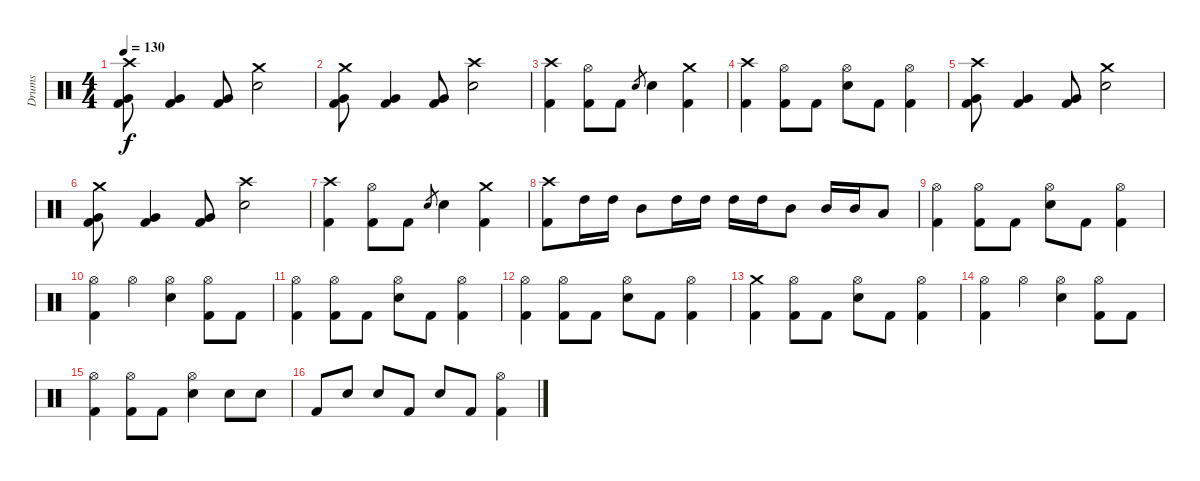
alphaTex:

\track ("Drums" "Drums") {instrument percussion}
\staff {score}
\articulation defaults
\ts (4 4)
\tempo 130
\clef neutral
\ks c
("Crash high (hit)" "Very Low Tom (hit)" "Kick (hit) 2").8{dy f} ("Very Low Tom (hit)" "Kick (hit) 2").4 ("Very Low Tom (hit)" "Kick (hit) 2").8 ("Crash medium (hit)" "Electric Snare (hit)").2 |
("Crash medium (hit)" "Very Low Tom (hit)" "Kick (hit) 2").8 ("Very Low Tom (hit)" "Kick (hit) 2").4 ("Very Low Tom (hit)" "Kick (hit) 2").8 ("Crash high (hit)" "Electric Snare (hit)").2 |
("Crash high (hit)" "Kick (hit) 2").4 ("Hi-Hat (open)" "Kick (hit) 2").8 "Kick (hit) 2".8 "Electric Snare (hit)".8{gr} "Electric Snare (hit)".4 ("Crash medium (hit)" "Kick (hit) 2").4 |
("Crash high (hit)" "Kick (hit) 2").4 ("Hi-Hat (open)" "Kick (hit) 2").8 "Kick (hit) 2".8 ("Hi-Hat (open)" "Electric Snare (hit)").8 "Kick (hit) 2".8 ("Hi-Hat (open)" "Kick (hit) 2").4 |
("Crash high (hit)" "Very Low Tom (hit)" "Kick (hit) 2").8 ("Very Low Tom (hit)" "Kick (hit) 2").4 ("Very Low Tom (hit)" "Kick (hit) 2").8 ("Crash medium (hit)" "Electric Snare (hit)").2 |
("Crash medium (hit)" "Very Low Tom (hit)" "Kick (hit) 2").8 ("Very Low Tom (hit)" "Kick (hit) 2").4 ("Very Low Tom (hit)" "Kick (hit) 2").8 ("Crash high (hit)" "Electric Snare (hit)").2 |
("Crash high (hit)" "Kick (hit) 2").4 ("Hi-Hat (open)" "Kick (hit) 2").8 "Kick (hit) 2".8 "Electric Snare (hit)".8{gr} "Electric Snare (hit)".4 ("Crash medium (hit)" "Kick (hit) 2").4 |
("Crash high (hit)" "Kick (hit) 2").8 "High Tom (hit)".16 "High Tom (hit)".16 "Mid Tom (hit)".8 "High Tom (hit)".16 "High Tom (hit)".16 "High Tom (hit)".16 "High Tom (hit)".16 "Mid Tom (hit)".8 "Mid Tom (hit)".16 "Mid Tom (hit)".16 "Low Tom (hit)".8 |
("Hi-Hat (open)" "Kick (hit) 2").4 ("Hi-Hat (open)" "Kick (hit) 2").8 "Kick (hit) 2".8 ("Hi-Hat (open)" "Electric Snare (hit)").8 "Kick (hit) 2".8 ("Hi-Hat (open)" "Kick (hit) 2").4 |
("Hi-Hat (open)" "Kick (hit) 2").4 "Hi-Hat (open)".4 ("Hi-Hat (open)" "Electric Snare (hit)").4 ("Hi-Hat (open)" "Kick (hit) 2").8 "Kick (hit) 2".8 |
("Hi-Hat (open)" "Kick (hit) 2").4 ("Hi-Hat (open)" "Kick (hit) 2").8 "Kick (hit) 2".8 ("Hi-Hat (open)" "Electric Snare (hit)").8 "Kick (hit) 2".8 ("Hi-Hat (open)" "Kick (hit) 2").4 |
("Hi-Hat (open)" "Kick (hit) 2").4 ("Hi-Hat (open)" "Kick (hit) 2").8 "Kick (hit) 2".8 ("Hi-Hat (open)" "Electric Snare (hit)").8 "Kick (hit) 2".8 ("Hi-Hat (open)" "Kick (hit) 2").4 |
("Crash medium (hit)" "Kick (hit) 2").4 ("Hi-Hat (open)" "Kick (hit) 2").8 "Kick (hit) 2".8 ("Hi-Hat (open)" "Electric Snare (hit)").8 "Kick (hit) 2".8 ("Hi-Hat (open)" "Kick (hit) 2").4 |
("Hi-Hat (open)" "Kick (hit) 2").4 "Hi-Hat (open)".4 ("Hi-Hat (open)" "Electric Snare (hit)").4 ("Hi-Hat (open)" "Kick (hit) 2").8 "Kick (hit) 2".8 |
("Hi-Hat (open)" "Kick (hit) 2").4 ("Hi-Hat (open)" "Kick (hit) 2").8 "Kick (hit) 2".8 ("Hi-Hat (open)" "Electric Snare (hit)").4 "Electric Snare (hit)".8 "Electric Snare (hit)".8 |
"Kick (hit) 2".8 "Electric Snare (hit)".8 "Electric Snare (hit)".8 "Kick (hit) 2".8 "Electric Snare (hit)".8 "Kick (hit) 2".8 ("Hi-Hat (open)" "Kick (hit) 2").4
